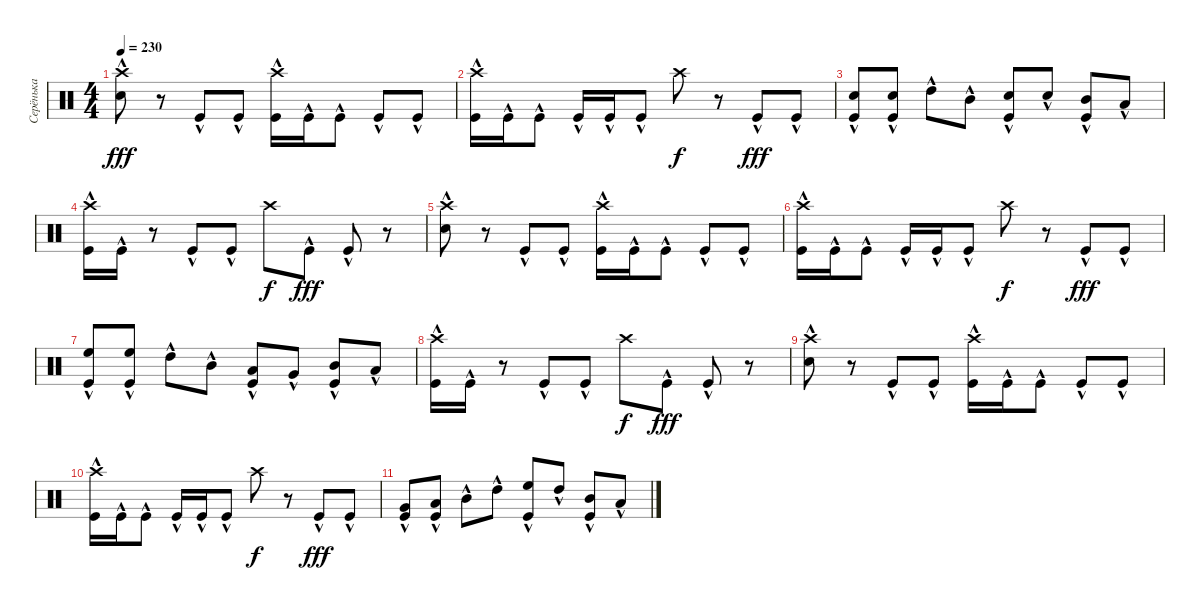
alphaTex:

\track ("Серёнька" "Серёнька") {instrument percussion}
\staff {score}
\articulation defaults
\ts (4 4)
\tempo 230
\clef neutral
\ks c
("Crash high (hit)" "Snare (hit) 2"{hac}).8{dy fff} r.8 "Kick (hit)"{hac}.8 "Kick (hit)"{hac}.8 ("Crash high (hit)" "Kick (hit)"{hac}).16 "Kick (hit)"{hac}.16 "Kick (hit)"{hac}.8 "Kick (hit)"{hac}.8 "Kick (hit)"{hac}.8 |
("Crash high (hit)" "Kick (hit)"{hac}).16 "Kick (hit)"{hac}.16 "Kick (hit)"{hac}.8 "Kick (hit)"{hac}.16 "Kick (hit)"{hac}.16 "Kick (hit)"{hac}.8 "Crash high (hit)".8{dy f} r.8 "Kick (hit)"{hac}.8{dy fff} "Kick (hit)"{hac}.8 |
("Snare (hit) 2"{hac} "Kick (hit)"{hac}).8 ("Snare (hit) 2"{hac} "Kick (hit)"{hac}).8 "High Tom (hit)"{hac}.8 "Mid Tom (hit)"{hac}.8 ("Snare (hit) 2"{hac} "Kick (hit)"{hac}).8 "Snare (hit) 2"{hac}.8 ("Mid Tom (hit)"{hac} "Kick (hit)"{hac}).8 "Low Tom (hit)"{hac}.8 |
("Crash high (hit)" "Kick (hit)"{hac}).16 "Kick (hit)"{hac}.16 r.8 "Kick (hit)"{hac}.8 "Kick (hit)"{hac}.8 "Crash high (hit)".8{dy f} "Kick (hit)"{hac}.8{dy fff} "Kick (hit)"{hac}.8 r.8 |
("Crash high (hit)" "Snare (hit) 2"{hac}).8 r.8 "Kick (hit)"{hac}.8 "Kick (hit)"{hac}.8 ("Crash high (hit)" "Kick (hit)"{hac}).16 "Kick (hit)"{hac}.16 "Kick (hit)"{hac}.8 "Kick (hit)"{hac}.8 "Kick (hit)"{hac}.8 |
("Crash high (hit)" "Kick (hit)"{hac}).16 "Kick (hit)"{hac}.16 "Kick (hit)"{hac}.8 "Kick (hit)"{hac}.16 "Kick (hit)"{hac}.16 "Kick (hit)"{hac}.8 "Crash high (hit)".8{dy f} r.8 "Kick (hit)"{hac}.8{dy fff} "Kick (hit)"{hac}.8 |
("High Floor Tom (hit)"{hac} "Kick (hit)"{hac}).8 ("High Floor Tom (hit)"{hac} "Kick (hit)"{hac}).8 "High Tom (hit)"{hac}.8 "Mid Tom (hit)"{hac}.8 ("Low Tom (hit)"{hac} "Kick (hit)"{hac}).8 "Very Low Tom (hit)"{hac}.8 ("Mid Tom (hit)"{hac} "Kick (hit)"{hac}).8 "Low Tom (hit)"{hac}.8 |
("Crash high (hit)" "Kick (hit)"{hac}).16 "Kick (hit)"{hac}.16 r.8 "Kick (hit)"{hac}.8 "Kick (hit)"{hac}.8 "Crash high (hit)".8{dy f} "Kick (hit)"{hac}.8{dy fff} "Kick (hit)"{hac}.8 r.8 |
("Crash high (hit)" "Snare (hit) 2"{hac}).8 r.8 "Kick (hit)"{hac}.8 "Kick (hit)"{hac}.8 ("Crash high (hit)" "Kick (hit)"{hac}).16 "Kick (hit)"{hac}.16 "Kick (hit)"{hac}.8 "Kick (hit)"{hac}.8 "Kick (hit)"{hac}.8 |
("Crash high (hit)" "Kick (hit)"{hac}).16 "Kick (hit)"{hac}.16 "Kick (hit)"{hac}.8 "Kick (hit)"{hac}.16 "Kick (hit)"{hac}.16 "Kick (hit)"{hac}.8 "Crash high (hit)".8{dy f} r.8 "Kick (hit)"{hac}.8{dy fff} "Kick (hit)"{hac}.8 |
("Very Low Tom (hit)"{hac} "Kick (hit)"{hac}).8 ("Low Tom (hit)"{hac} "Kick (hit)"{hac}).8 "Mid Tom (hit)"{hac}.8 "High Tom (hit)"{hac}.8 ("High Floor Tom (hit)"{hac} "Kick (hit)"{hac}).8 "High Tom (hit)"{hac}.8 ("Mid Tom (hit)"{hac} "Kick (hit)"{hac}).8 "Low Tom (hit)"{hac}.8
